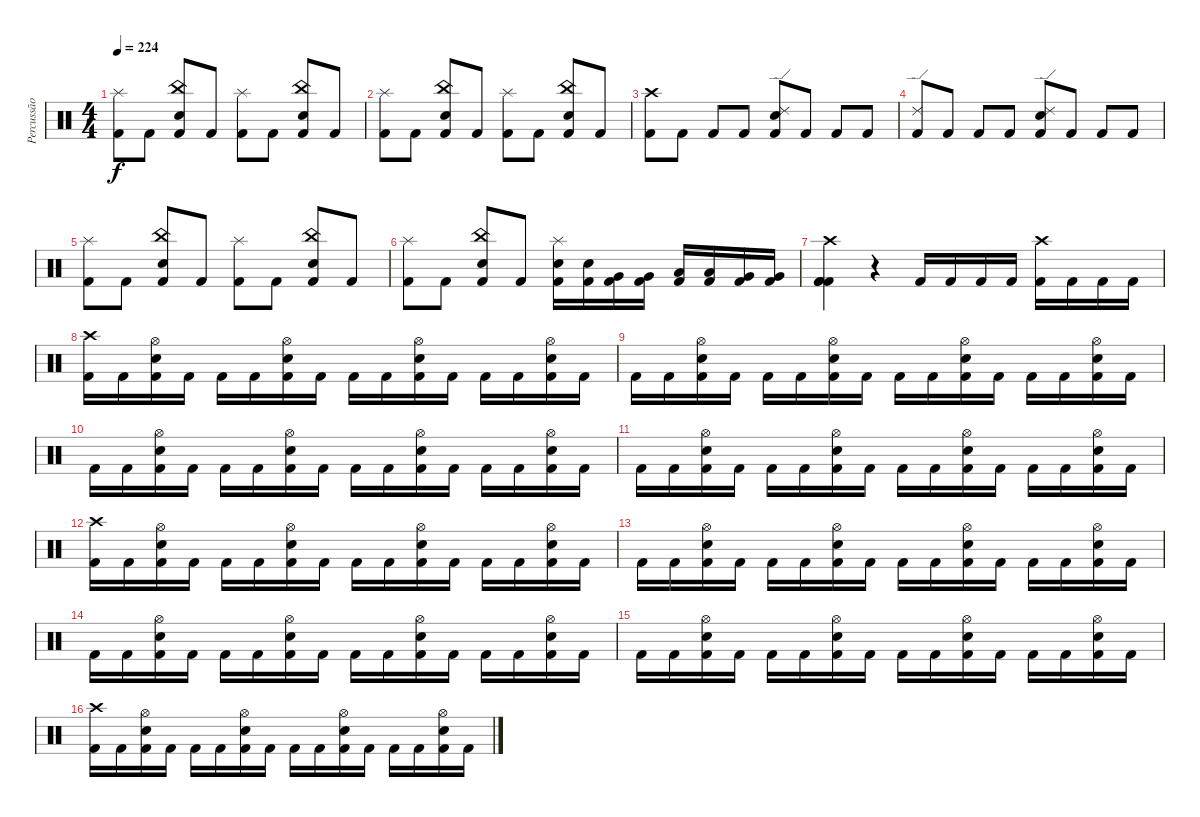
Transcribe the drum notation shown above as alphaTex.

\track ("Percussão" "Percussão") {instrument percussion}
\staff {score}
\articulation defaults
\ts (4 4)
\tempo 224
\clef neutral
\ks c
("Splash (hit)" "Kick (hit) 2").8{dy f} "Kick (hit) 2".8 ("China (hit)" "Electric Snare (hit)" "Kick (hit) 2").8 "Kick (hit) 2".8 ("Splash (hit)" "Kick (hit) 2").8 "Kick (hit) 2".8 ("China (hit)" "Electric Snare (hit)" "Kick (hit) 2").8 "Kick (hit) 2".8 |
("Splash (hit)" "Kick (hit) 2").8 "Kick (hit) 2".8 ("China (hit)" "Electric Snare (hit)" "Kick (hit) 2").8 "Kick (hit) 2".8 ("Splash (hit)" "Kick (hit) 2").8 "Kick (hit) 2".8 ("China (hit)" "Electric Snare (hit)" "Kick (hit) 2").8 "Kick (hit) 2".8 |
("Crash high (hit)" "Kick (hit) 2").8 "Kick (hit) 2".8 "Kick (hit) 2".8 "Kick (hit) 2".8 ("Ride (edge) 2" "Electric Snare (hit)" "Kick (hit) 2").8 "Kick (hit) 2".8 "Kick (hit) 2".8 "Kick (hit) 2".8 |
("Ride (edge) 2" "Kick (hit) 2").8 "Kick (hit) 2".8 "Kick (hit) 2".8 "Kick (hit) 2".8 ("Ride (edge) 2" "Electric Snare (hit)" "Kick (hit) 2").8 "Kick (hit) 2".8 "Kick (hit) 2".8 "Kick (hit) 2".8 |
("Splash (hit)" "Kick (hit) 2").8 "Kick (hit) 2".8 ("China (hit)" "Electric Snare (hit)" "Kick (hit) 2").8 "Kick (hit) 2".8 ("Splash (hit)" "Kick (hit) 2").8 "Kick (hit) 2".8 ("China (hit)" "Electric Snare (hit)" "Kick (hit) 2").8 "Kick (hit) 2".8 |
("Splash (hit)" "Kick (hit) 2").8 "Kick (hit) 2".8 ("China (hit)" "Electric Snare (hit)" "Kick (hit) 2").8 "Kick (hit) 2".8 ("Splash (hit)" "Electric Snare (hit)" "Kick (hit) 2").16 ("Electric Snare (hit)" "Kick (hit) 2").16 ("Very Low Tom (hit)" "Kick (hit) 2").16 ("Very Low Tom (hit)" "Kick (hit) 2").16 ("Low Tom (hit)" "Kick (hit) 2").16 ("Low Tom (hit)" "Kick (hit) 2").16 ("Very Low Tom (hit)" "Kick (hit) 2").16 ("Very Low Tom (hit)" "Kick (hit) 2").16 |
("Crash high (hit)" "Kick (hit) 2" "Kick (hit) 2" "Kick (hit) 2").4 r.4 "Kick (hit) 2".16 "Kick (hit) 2".16 "Kick (hit) 2".16 "Kick (hit) 2".16 ("Crash high (hit)" "Kick (hit) 2").16 "Kick (hit) 2".16 "Kick (hit) 2".16 "Kick (hit) 2".16 |
("Crash high (hit)" "Kick (hit) 2").16 "Kick (hit) 2".16 ("Hi-Hat (open)" "Electric Snare (hit)" "Kick (hit) 2").16 "Kick (hit) 2".16 "Kick (hit) 2".16 "Kick (hit) 2".16 ("Hi-Hat (open)" "Electric Snare (hit)" "Kick (hit) 2").16 "Kick (hit) 2".16 "Kick (hit) 2".16 "Kick (hit) 2".16 ("Hi-Hat (open)" "Electric Snare (hit)" "Kick (hit) 2").16 "Kick (hit) 2".16 "Kick (hit) 2".16 "Kick (hit) 2".16 ("Hi-Hat (open)" "Electric Snare (hit)" "Kick (hit) 2").16 "Kick (hit) 2".16 |
"Kick (hit) 2".16 "Kick (hit) 2".16 ("Hi-Hat (open)" "Electric Snare (hit)" "Kick (hit) 2").16 "Kick (hit) 2".16 "Kick (hit) 2".16 "Kick (hit) 2".16 ("Hi-Hat (open)" "Electric Snare (hit)" "Kick (hit) 2").16 "Kick (hit) 2".16 "Kick (hit) 2".16 "Kick (hit) 2".16 ("Hi-Hat (open)" "Electric Snare (hit)" "Kick (hit) 2").16 "Kick (hit) 2".16 "Kick (hit) 2".16 "Kick (hit) 2".16 ("Hi-Hat (open)" "Electric Snare (hit)" "Kick (hit) 2").16 "Kick (hit) 2".16 |
"Kick (hit) 2".16 "Kick (hit) 2".16 ("Hi-Hat (open)" "Electric Snare (hit)" "Kick (hit) 2").16 "Kick (hit) 2".16 "Kick (hit) 2".16 "Kick (hit) 2".16 ("Hi-Hat (open)" "Electric Snare (hit)" "Kick (hit) 2").16 "Kick (hit) 2".16 "Kick (hit) 2".16 "Kick (hit) 2".16 ("Hi-Hat (open)" "Electric Snare (hit)" "Kick (hit) 2").16 "Kick (hit) 2".16 "Kick (hit) 2".16 "Kick (hit) 2".16 ("Hi-Hat (open)" "Electric Snare (hit)" "Kick (hit) 2").16 "Kick (hit) 2".16 |
"Kick (hit) 2".16 "Kick (hit) 2".16 ("Hi-Hat (open)" "Electric Snare (hit)" "Kick (hit) 2").16 "Kick (hit) 2".16 "Kick (hit) 2".16 "Kick (hit) 2".16 ("Hi-Hat (open)" "Electric Snare (hit)" "Kick (hit) 2").16 "Kick (hit) 2".16 "Kick (hit) 2".16 "Kick (hit) 2".16 ("Hi-Hat (open)" "Electric Snare (hit)" "Kick (hit) 2").16 "Kick (hit) 2".16 "Kick (hit) 2".16 "Kick (hit) 2".16 ("Hi-Hat (open)" "Electric Snare (hit)" "Kick (hit) 2").16 "Kick (hit) 2".16 |
("Crash high (hit)" "Kick (hit) 2").16 "Kick (hit) 2".16 ("Hi-Hat (open)" "Electric Snare (hit)" "Kick (hit) 2").16 "Kick (hit) 2".16 "Kick (hit) 2".16 "Kick (hit) 2".16 ("Hi-Hat (open)" "Electric Snare (hit)" "Kick (hit) 2").16 "Kick (hit) 2".16 "Kick (hit) 2".16 "Kick (hit) 2".16 ("Hi-Hat (open)" "Electric Snare (hit)" "Kick (hit) 2").16 "Kick (hit) 2".16 "Kick (hit) 2".16 "Kick (hit) 2".16 ("Hi-Hat (open)" "Electric Snare (hit)" "Kick (hit) 2").16 "Kick (hit) 2".16 |
"Kick (hit) 2".16 "Kick (hit) 2".16 ("Hi-Hat (open)" "Electric Snare (hit)" "Kick (hit) 2").16 "Kick (hit) 2".16 "Kick (hit) 2".16 "Kick (hit) 2".16 ("Hi-Hat (open)" "Electric Snare (hit)" "Kick (hit) 2").16 "Kick (hit) 2".16 "Kick (hit) 2".16 "Kick (hit) 2".16 ("Hi-Hat (open)" "Electric Snare (hit)" "Kick (hit) 2").16 "Kick (hit) 2".16 "Kick (hit) 2".16 "Kick (hit) 2".16 ("Hi-Hat (open)" "Electric Snare (hit)" "Kick (hit) 2").16 "Kick (hit) 2".16 |
"Kick (hit) 2".16 "Kick (hit) 2".16 ("Hi-Hat (open)" "Electric Snare (hit)" "Kick (hit) 2").16 "Kick (hit) 2".16 "Kick (hit) 2".16 "Kick (hit) 2".16 ("Hi-Hat (open)" "Electric Snare (hit)" "Kick (hit) 2").16 "Kick (hit) 2".16 "Kick (hit) 2".16 "Kick (hit) 2".16 ("Hi-Hat (open)" "Electric Snare (hit)" "Kick (hit) 2").16 "Kick (hit) 2".16 "Kick (hit) 2".16 "Kick (hit) 2".16 ("Hi-Hat (open)" "Electric Snare (hit)" "Kick (hit) 2").16 "Kick (hit) 2".16 |
"Kick (hit) 2".16 "Kick (hit) 2".16 ("Hi-Hat (open)" "Electric Snare (hit)" "Kick (hit) 2").16 "Kick (hit) 2".16 "Kick (hit) 2".16 "Kick (hit) 2".16 ("Hi-Hat (open)" "Electric Snare (hit)" "Kick (hit) 2").16 "Kick (hit) 2".16 "Kick (hit) 2".16 "Kick (hit) 2".16 ("Hi-Hat (open)" "Electric Snare (hit)" "Kick (hit) 2").16 "Kick (hit) 2".16 "Kick (hit) 2".16 "Kick (hit) 2".16 ("Hi-Hat (open)" "Electric Snare (hit)" "Kick (hit) 2").16 "Kick (hit) 2".16 |
("Crash high (hit)" "Kick (hit) 2").16 "Kick (hit) 2".16 ("Hi-Hat (open)" "Electric Snare (hit)" "Kick (hit) 2").16 "Kick (hit) 2".16 "Kick (hit) 2".16 "Kick (hit) 2".16 ("Hi-Hat (open)" "Electric Snare (hit)" "Kick (hit) 2").16 "Kick (hit) 2".16 "Kick (hit) 2".16 "Kick (hit) 2".16 ("Hi-Hat (open)" "Electric Snare (hit)" "Kick (hit) 2").16 "Kick (hit) 2".16 "Kick (hit) 2".16 "Kick (hit) 2".16 ("Hi-Hat (open)" "Electric Snare (hit)" "Kick (hit) 2").16 "Kick (hit) 2".16
